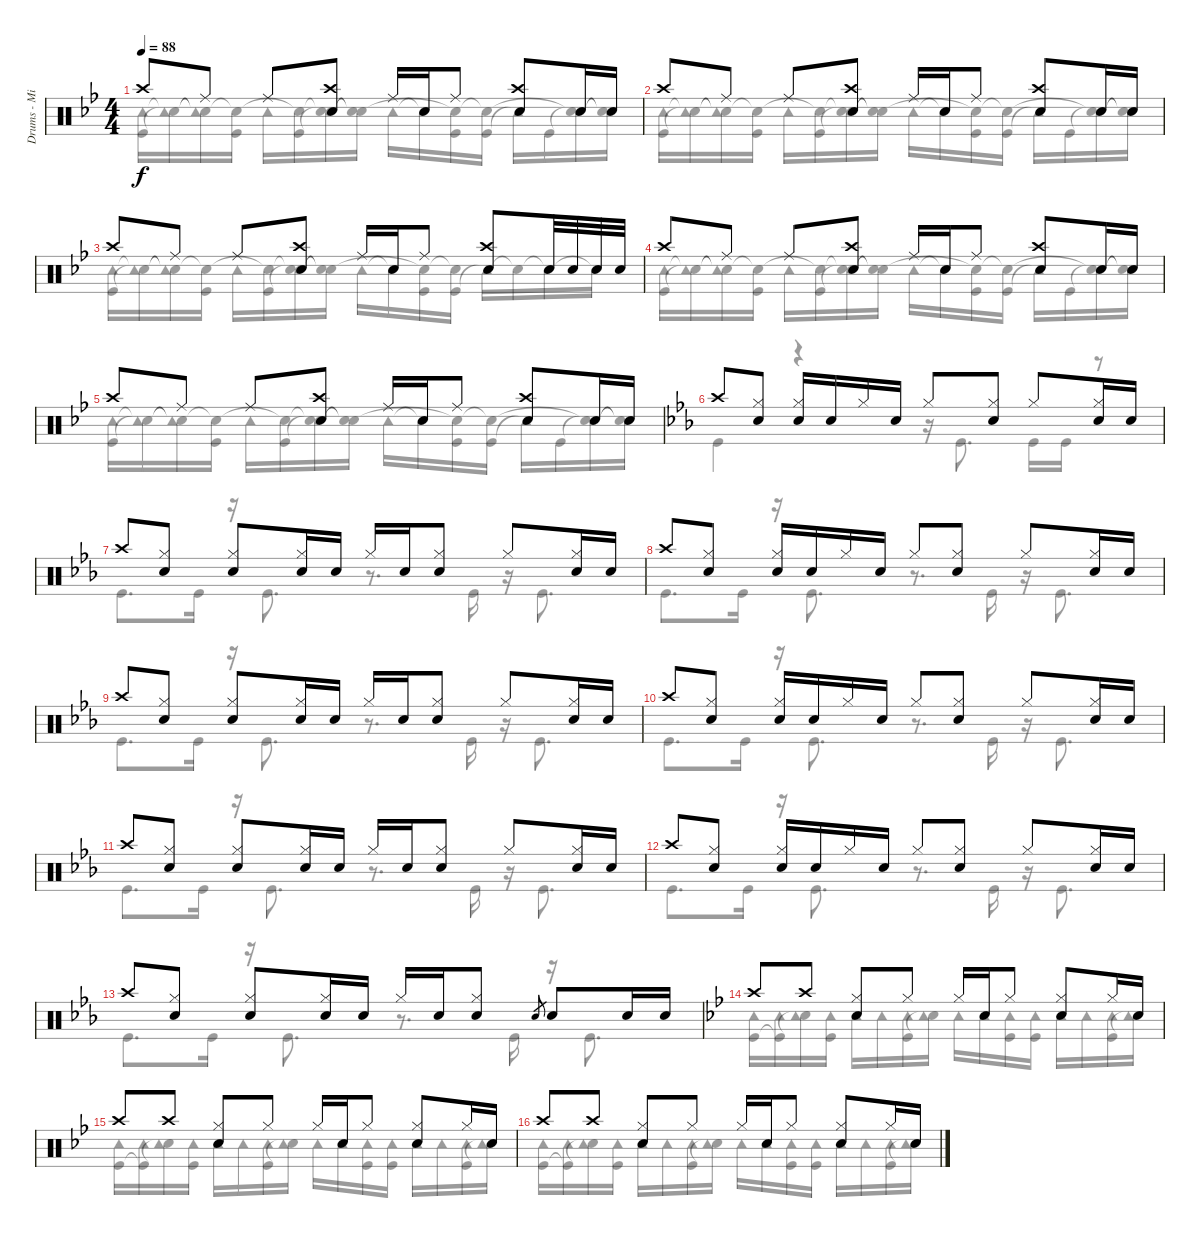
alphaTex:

\track ("Drums - Mike Portnoy" "Drums - Mi") {instrument percussion}
\staff {score}
\articulation defaults
\voice
\ts (4 4)
\tempo 88
\clef neutral
\ks bb "Crash high (hit)".8{dy f} "Ride (middle)".8 "Ride (middle)".8
("Crash high (hit)" "Snare (hit) 2").8 "Ride (middle)".16 "Snare (hit) 2".16 "Ride (middle)".8 ("Crash high (hit)" "Snare (hit) 2").8 "Snare (hit) 2".16 "Snare (hit) 2".16 |
"Crash high (hit)".8 "Ride (middle)".8 "Ride (middle)".8 ("Crash high (hit)" "Snare (hit) 2").8 "Ride (middle)".16 "Snare (hit) 2".16 "Ride (middle)".8 ("Crash high (hit)" "Snare (hit) 2").8 "Snare (hit) 2".16 "Snare (hit) 2".16 |
"Crash high (hit)".8 "Ride (middle)".8 "Ride (middle)".8 ("Crash high (hit)" "Snare (hit) 2").8 "Ride (middle)".16 "Snare (hit) 2".16 "Ride (middle)".8 ("Crash high (hit)" "Snare (hit) 2").8 "Snare (hit) 2".32 "Snare (hit) 2".32 "Snare (hit) 2".32 "Snare (hit) 2".32 |
"Crash high (hit)".8 "Ride (middle)".8 "Ride (middle)".8 ("Crash high (hit)" "Snare (hit) 2").8 "Ride (middle)".16 "Snare (hit) 2".16 "Ride (middle)".8 ("Crash high (hit)" "Snare (hit) 2").8 "Snare (hit) 2".16 "Snare (hit) 2".16 |
"Crash high (hit)".8 "Ride (middle)".8 "Ride (middle)".8 ("Crash high (hit)" "Snare (hit) 2").8 "Ride (middle)".16 "Snare (hit) 2".16 "Ride (middle)".8 ("Crash high (hit)" "Snare (hit) 2").8 "Snare (hit) 2".16 "Snare (hit) 2".16 |
\ks eb "Crash high (hit)".8
("Hi-Hat (closed)" "Snare (hit) 2").8 ("Hi-Hat (closed)" "Snare (hit) 2").16 "Snare (hit) 2".16 "Hi-Hat (closed)".16 "Snare (hit) 2".16 "Hi-Hat (closed)".8 ("Hi-Hat (closed)" "Snare (hit) 2").8 "Hi-Hat (closed)".8 ("Hi-Hat (closed)" "Snare (hit) 2").16 "Snare (hit) 2".16 |
"Crash high (hit)".8 ("Hi-Hat (closed)" "Snare (hit) 2").8 ("Hi-Hat (closed)" "Snare (hit) 2").8 ("Hi-Hat (closed)" "Snare (hit) 2").16 "Snare (hit) 2".16 "Hi-Hat (closed)".16 "Snare (hit) 2".16 ("Hi-Hat (closed)" "Snare (hit) 2").8 "Hi-Hat (closed)".8 ("Hi-Hat (closed)" "Snare (hit) 2").16 "Snare (hit) 2".16 |
"Crash high (hit)".8 ("Hi-Hat (closed)" "Snare (hit) 2").8 ("Hi-Hat (closed)" "Snare (hit) 2").16 "Snare (hit) 2".16 "Hi-Hat (closed)".16 "Snare (hit) 2".16 "Hi-Hat (closed)".8 ("Hi-Hat (closed)" "Snare (hit) 2").8 "Hi-Hat (closed)".8 ("Hi-Hat (closed)" "Snare (hit) 2").16 "Snare (hit) 2".16 |
"Crash high (hit)".8 ("Hi-Hat (closed)" "Snare (hit) 2").8 ("Hi-Hat (closed)" "Snare (hit) 2").8 ("Hi-Hat (closed)" "Snare (hit) 2").16 "Snare (hit) 2".16 "Hi-Hat (closed)".16 "Snare (hit) 2".16 ("Hi-Hat (closed)" "Snare (hit) 2").8 "Hi-Hat (closed)".8 ("Hi-Hat (closed)" "Snare (hit) 2").16 "Snare (hit) 2".16 |
"Crash high (hit)".8 ("Hi-Hat (closed)" "Snare (hit) 2").8 ("Hi-Hat (closed)" "Snare (hit) 2").16 "Snare (hit) 2".16 "Hi-Hat (closed)".16 "Snare (hit) 2".16 "Hi-Hat (closed)".8 ("Hi-Hat (closed)" "Snare (hit) 2").8 "Hi-Hat (closed)".8 ("Hi-Hat (closed)" "Snare (hit) 2").16 "Snare (hit) 2".16 |
"Crash high (hit)".8 ("Hi-Hat (closed)" "Snare (hit) 2").8 ("Hi-Hat (closed)" "Snare (hit) 2").8 ("Hi-Hat (closed)" "Snare (hit) 2").16 "Snare (hit) 2".16 "Hi-Hat (closed)".16 "Snare (hit) 2".16 ("Hi-Hat (closed)" "Snare (hit) 2").8 "Hi-Hat (closed)".8 ("Hi-Hat (closed)" "Snare (hit) 2").16 "Snare (hit) 2".16 |
"Crash high (hit)".8 ("Hi-Hat (closed)" "Snare (hit) 2").8 ("Hi-Hat (closed)" "Snare (hit) 2").16 "Snare (hit) 2".16 "Hi-Hat (closed)".16 "Snare (hit) 2".16 "Hi-Hat (closed)".8 ("Hi-Hat (closed)" "Snare (hit) 2").8 "Hi-Hat (closed)".8 ("Hi-Hat (closed)" "Snare (hit) 2").16 "Snare (hit) 2".16 |
"Crash high (hit)".8 ("Hi-Hat (closed)" "Snare (hit) 2").8 ("Hi-Hat (closed)" "Snare (hit) 2").8 ("Hi-Hat (closed)" "Snare (hit) 2").16 "Snare (hit) 2".16 "Hi-Hat (closed)".16 "Snare (hit) 2".16 ("Hi-Hat (closed)" "Snare (hit) 2").8 "Snare (hit) 2".8{gr} "Snare (hit) 2".8 "Snare (hit) 2".16 "Snare (hit) 2".16 |
\ks bb "Crash high (hit)".8 "Crash high (hit)".8
("Hi-Hat (closed)" "Snare (hit) 2").8 "Hi-Hat (closed)".8 "Hi-Hat (closed)".16 "Snare (hit) 2".16 "Hi-Hat (closed)".8 ("Hi-Hat (closed)" "Snare (hit) 2").8 "Hi-Hat (closed)".16 "Snare (hit) 2".16 |
"Crash high (hit)".8 "Crash high (hit)".8 ("Hi-Hat (closed)" "Snare (hit) 2").8 "Hi-Hat (closed)".8 "Hi-Hat (closed)".16 "Snare (hit) 2".16 "Hi-Hat (closed)".8 ("Hi-Hat (closed)" "Snare (hit) 2").8 "Hi-Hat (closed)".16 "Snare (hit) 2".16 |
"Crash high (hit)".8 "Crash high (hit)".8 ("Hi-Hat (closed)" "Snare (hit) 2").8 "Hi-Hat (closed)".8 "Hi-Hat (closed)".16 "Snare (hit) 2".16 "Hi-Hat (closed)".8 ("Hi-Hat (closed)" "Snare (hit) 2").8 "Hi-Hat (closed)".16 "Snare (hit) 2".16
\voice
\clef neutral
\ottava regular
\simile none
\ks bb
("Kick (hit)" "Tambourine (hit)").16{dy f} ("Snare (hit)"{t} "Tambourine (hit)"{t}).16 ("Snare (hit)"{t} "Tambourine (hit)"{t}).16 ("Kick (hit)" "Snare (hit)"{t}).16 "Tambourine (hit)".16 ("Kick (hit)" "Snare (hit)"{t}).16 ("Snare (hit)"{t} "Snare (hit)"{t}).16 ("Snare (hit)"{t} "Snare (hit)"{t}).16 "Tambourine (hit)".16 "Snare (hit)"{t}.16 ("Kick (hit)" "Snare (hit)"{t}).16 ("Kick (hit)" "Snare (hit)"{t}).16 "Tambourine (hit)"{t}.16 "Kick (hit)".16 ("Snare (hit)"{t} "Snare (hit)"{t}).16 ("Snare (hit)"{t} "Snare (hit)"{t}).16 |
("Kick (hit)" "Tambourine (hit)").16 ("Snare (hit)"{t} "Tambourine (hit)"{t}).16 ("Snare (hit)"{t} "Tambourine (hit)"{t}).16 ("Kick (hit)" "Snare (hit)"{t}).16 "Tambourine (hit)".16 ("Kick (hit)" "Snare (hit)"{t}).16 ("Snare (hit)"{t} "Snare (hit)"{t}).16 ("Snare (hit)"{t} "Snare (hit)"{t}).16 "Tambourine (hit)".16 "Snare (hit)"{t}.16 ("Kick (hit)" "Snare (hit)"{t}).16 ("Kick (hit)" "Snare (hit)"{t}).16 "Tambourine (hit)"{t}.16 "Kick (hit)".16 ("Snare (hit)"{t} "Snare (hit)"{t}).16 ("Snare (hit)"{t} "Snare (hit)"{t}).16 |
("Kick (hit)" "Tambourine (hit)").16 ("Snare (hit)"{t} "Tambourine (hit)"{t}).16 ("Snare (hit)"{t} "Tambourine (hit)"{t}).16 ("Kick (hit)" "Snare (hit)"{t}).16 "Tambourine (hit)".16 ("Kick (hit)" "Snare (hit)"{t}).16 ("Snare (hit)"{t} "Snare (hit)"{t}).16 ("Snare (hit)"{t} "Snare (hit)"{t}).16 "Tambourine (hit)".16 "Snare (hit)"{t}.16 ("Kick (hit)" "Snare (hit)"{t}).16 ("Kick (hit)" "Snare (hit)"{t}).16 "Tambourine (hit)"{t}.16 "Snare (hit)"{t}.16 "Snare (hit)"{t}.16 "Snare (hit)"{t}.16 |
("Kick (hit)" "Tambourine (hit)").16 ("Snare (hit)"{t} "Tambourine (hit)"{t}).16 ("Snare (hit)"{t} "Tambourine (hit)"{t}).16 ("Kick (hit)" "Snare (hit)"{t}).16 "Tambourine (hit)".16 ("Kick (hit)" "Snare (hit)"{t}).16 ("Snare (hit)"{t} "Snare (hit)"{t}).16 ("Snare (hit)"{t} "Snare (hit)"{t}).16 "Tambourine (hit)".16 "Snare (hit)"{t}.16 ("Kick (hit)" "Snare (hit)"{t}).16 ("Kick (hit)" "Snare (hit)"{t}).16 "Tambourine (hit)"{t}.16 "Kick (hit)".16 ("Snare (hit)"{t} "Snare (hit)"{t}).16 ("Snare (hit)"{t} "Snare (hit)"{t}).16 |
("Kick (hit)" "Tambourine (hit)").16 ("Snare (hit)"{t} "Tambourine (hit)"{t}).16 ("Snare (hit)"{t} "Tambourine (hit)"{t}).16 ("Kick (hit)" "Snare (hit)"{t}).16 "Tambourine (hit)".16 ("Kick (hit)" "Snare (hit)"{t}).16 ("Snare (hit)"{t} "Snare (hit)"{t}).16 ("Snare (hit)"{t} "Snare (hit)"{t}).16 "Tambourine (hit)".16 "Snare (hit)"{t}.16 ("Kick (hit)" "Snare (hit)"{t}).16 ("Kick (hit)" "Snare (hit)"{t}).16 "Tambourine (hit)"{t}.16 "Kick (hit)".16 ("Snare (hit)"{t} "Snare (hit)"{t}).16 ("Snare (hit)"{t} "Snare (hit)"{t}).16 |
\ks eb "Kick (hit)".4
r.4 r.16 "Kick (hit)".8{d} "Kick (hit)".16 "Kick (hit)".16 r.8 |
"Kick (hit)".8{d} "Kick (hit)".16 r.16 "Kick (hit)".8{d} r.8{d} "Kick (hit)".16 r.16 "Kick (hit)".8{d} |
"Kick (hit)".8{d} "Kick (hit)".16 r.16 "Kick (hit)".8{d} r.8{d} "Kick (hit)".16 r.16 "Kick (hit)".8{d} |
"Kick (hit)".8{d} "Kick (hit)".16 r.16 "Kick (hit)".8{d} r.8{d} "Kick (hit)".16 r.16 "Kick (hit)".8{d} |
"Kick (hit)".8{d} "Kick (hit)".16 r.16 "Kick (hit)".8{d} r.8{d} "Kick (hit)".16 r.16 "Kick (hit)".8{d} |
"Kick (hit)".8{d} "Kick (hit)".16 r.16 "Kick (hit)".8{d} r.8{d} "Kick (hit)".16 r.16 "Kick (hit)".8{d} |
"Kick (hit)".8{d} "Kick (hit)".16 r.16 "Kick (hit)".8{d} r.8{d} "Kick (hit)".16 r.16 "Kick (hit)".8{d} |
"Kick (hit)".8{d} "Kick (hit)".16 r.16 "Kick (hit)".8{d} r.8{d} "Kick (hit)".16 r.16 "Kick (hit)".8{d} |
\ks bb
("Kick (hit)" "Tambourine (hit)").16 ("Kick (hit)"{t} "Tambourine (hit)").16 ("Snare (hit)"{t} "Tambourine (hit)").16 ("Kick (hit)" "Tambourine (hit)").16 "Tambourine (hit)".16 "Tambourine (hit)".16 ("Kick (hit)" "Tambourine (hit)").16 ("Snare (hit)"{t} "Tambourine (hit)").16 "Tambourine (hit)".16 "Tambourine (hit)".16 ("Kick (hit)" "Tambourine (hit)").16 ("Kick (hit)" "Tambourine (hit)").16 "Tambourine (hit)".16 "Tambourine (hit)".16 ("Kick (hit)" "Tambourine (hit)").16 ("Snare (hit)"{t} "Tambourine (hit)").16 |
("Kick (hit)" "Tambourine (hit)").16 ("Kick (hit)"{t} "Tambourine (hit)").16 ("Snare (hit)"{t} "Tambourine (hit)").16 ("Kick (hit)" "Tambourine (hit)").16 "Tambourine (hit)".16 "Tambourine (hit)".16 ("Kick (hit)" "Tambourine (hit)").16 ("Snare (hit)"{t} "Tambourine (hit)").16 "Tambourine (hit)".16 "Tambourine (hit)".16 ("Kick (hit)" "Tambourine (hit)").16 ("Kick (hit)" "Tambourine (hit)").16 "Tambourine (hit)".16 "Tambourine (hit)".16 ("Kick (hit)" "Tambourine (hit)").16 ("Snare (hit)"{t} "Tambourine (hit)").16 |
("Kick (hit)" "Tambourine (hit)").16 ("Kick (hit)"{t} "Tambourine (hit)").16 ("Snare (hit)"{t} "Tambourine (hit)").16 ("Kick (hit)" "Tambourine (hit)").16 "Tambourine (hit)".16 "Tambourine (hit)".16 ("Kick (hit)" "Tambourine (hit)").16 ("Snare (hit)"{t} "Tambourine (hit)").16 "Tambourine (hit)".16 "Tambourine (hit)".16 ("Kick (hit)" "Tambourine (hit)").16 ("Kick (hit)" "Tambourine (hit)").16 "Tambourine (hit)".16 "Tambourine (hit)".16 ("Kick (hit)" "Tambourine (hit)").16 ("Snare (hit)"{t} "Tambourine (hit)").16
